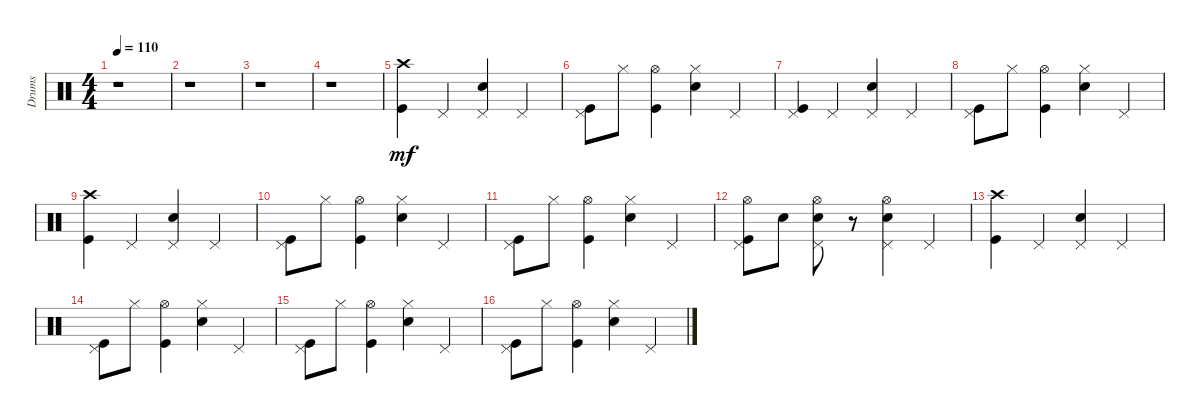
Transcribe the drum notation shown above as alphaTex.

\track ("Drums" "Drums") {instrument percussion}
\staff {score}
\articulation defaults
\ts (4 4)
\tempo 110
\clef neutral
\ks c
r.1{dy mf} |
r.1 |
r.1 |
r.1 |
("Crash high (hit)" "Kick (hit)").4 "Pedal Hi-Hat (hit)".4 ("Pedal Hi-Hat (hit)" "Snare (hit) 2").4 "Pedal Hi-Hat (hit)".4 |
("Pedal Hi-Hat (hit)" "Kick (hit)").8 "Hi-Hat (closed)".8 ("Hi-Hat (open)" "Kick (hit)").4 ("Hi-Hat (closed)" "Snare (hit) 2").4 "Pedal Hi-Hat (hit)".4 |
("Pedal Hi-Hat (hit)" "Kick (hit)").4 "Pedal Hi-Hat (hit)".4 ("Pedal Hi-Hat (hit)" "Snare (hit) 2").4 "Pedal Hi-Hat (hit)".4 |
("Pedal Hi-Hat (hit)" "Kick (hit)").8 "Hi-Hat (closed)".8 ("Hi-Hat (open)" "Kick (hit)").4 ("Hi-Hat (closed)" "Snare (hit) 2").4 "Pedal Hi-Hat (hit)".4 |
("Crash high (hit)" "Kick (hit)").4 "Pedal Hi-Hat (hit)".4 ("Pedal Hi-Hat (hit)" "Snare (hit) 2").4 "Pedal Hi-Hat (hit)".4 |
("Pedal Hi-Hat (hit)" "Kick (hit)").8 "Hi-Hat (closed)".8 ("Hi-Hat (open)" "Kick (hit)").4 ("Hi-Hat (closed)" "Snare (hit) 2").4 "Pedal Hi-Hat (hit)".4 |
("Pedal Hi-Hat (hit)" "Kick (hit)").8 "Hi-Hat (closed)".8 ("Hi-Hat (open)" "Kick (hit)").4 ("Hi-Hat (closed)" "Snare (hit) 2").4 "Pedal Hi-Hat (hit)".4 |
("Hi-Hat (open)" "Pedal Hi-Hat (hit)" "Kick (hit)").8 "Snare (hit) 2".8 ("Hi-Hat (open)" "Pedal Hi-Hat (hit)" "Snare (hit) 2").8 r.8 ("Hi-Hat (open)" "Pedal Hi-Hat (hit)" "Snare (hit) 2").4 "Pedal Hi-Hat (hit)".4 |
("Crash high (hit)" "Kick (hit)").4 "Pedal Hi-Hat (hit)".4 ("Pedal Hi-Hat (hit)" "Snare (hit) 2").4 "Pedal Hi-Hat (hit)".4 |
("Pedal Hi-Hat (hit)" "Kick (hit)").8 "Hi-Hat (closed)".8 ("Hi-Hat (open)" "Kick (hit)").4 ("Hi-Hat (closed)" "Snare (hit) 2").4 "Pedal Hi-Hat (hit)".4 |
("Pedal Hi-Hat (hit)" "Kick (hit)").8 "Hi-Hat (closed)".8 ("Hi-Hat (open)" "Kick (hit)").4 ("Hi-Hat (closed)" "Snare (hit) 2").4 "Pedal Hi-Hat (hit)".4 |
("Pedal Hi-Hat (hit)" "Kick (hit)").8 "Hi-Hat (closed)".8 ("Hi-Hat (open)" "Kick (hit)").4 ("Hi-Hat (closed)" "Snare (hit) 2").4 "Pedal Hi-Hat (hit)".4
